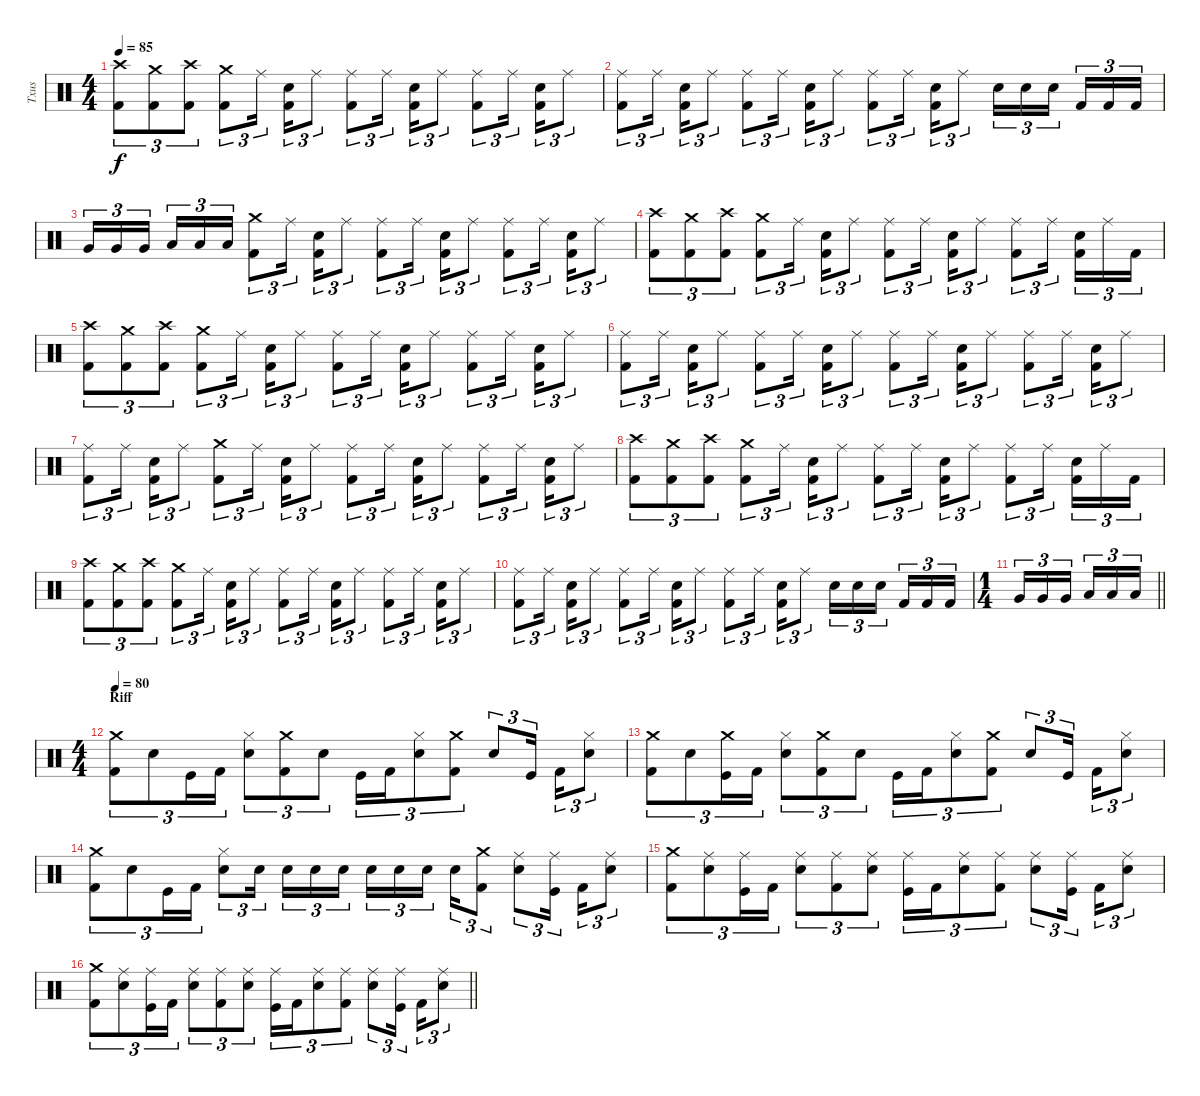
\track ("Txus" "Txus") {instrument percussion}
\staff {score}
\articulation defaults
\ts (4 4)
\tempo 85
\clef neutral
\ks c
("Crash high (hit)" "Kick (hit) 2").8{tu (3 2) dy f} ("Crash medium (hit)" "Kick (hit) 2").8{tu (3 2)} ("Crash high (hit)" "Kick (hit) 2").8{tu (3 2)} ("Crash medium (hit)" "Kick (hit) 2").8{tu (3 2)} "Ride (middle)".16{tu (3 2) beam splitsecondary} ("Electric Snare (hit)" "Kick (hit) 2").16{tu (3 2)} "Ride (middle)".8{tu (3 2)} ("Ride (middle)" "Kick (hit) 2").8{tu (3 2)} "Ride (middle)".16{tu (3 2) beam splitsecondary} ("Electric Snare (hit)" "Kick (hit) 2").16{tu (3 2)} "Ride (middle)".8{tu (3 2)} ("Ride (middle)" "Kick (hit) 2").8{tu (3 2)} "Ride (middle)".16{tu (3 2) beam splitsecondary} ("Electric Snare (hit)" "Kick (hit) 2").16{tu (3 2)} "Ride (middle)".8{tu (3 2)} |
("Ride (middle)" "Kick (hit) 2").8{tu (3 2)} "Ride (middle)".16{tu (3 2) beam splitsecondary} ("Electric Snare (hit)" "Kick (hit) 2").16{tu (3 2)} "Ride (middle)".8{tu (3 2)} ("Ride (middle)" "Kick (hit) 2").8{tu (3 2)} "Ride (middle)".16{tu (3 2) beam splitsecondary} ("Electric Snare (hit)" "Kick (hit) 2").16{tu (3 2)} "Ride (middle)".8{tu (3 2)} ("Ride (middle)" "Kick (hit) 2").8{tu (3 2)} "Ride (middle)".16{tu (3 2) beam splitsecondary} ("Electric Snare (hit)" "Kick (hit) 2").16{tu (3 2)} "Ride (middle)".8{tu (3 2)} "Electric Snare (hit)".16{tu (3 2)} "Electric Snare (hit)".16{tu (3 2)} "Electric Snare (hit)".16{tu (3 2) beam splitsecondary} "Kick (hit) 2".16{tu (3 2)} "Kick (hit) 2".16{tu (3 2)} "Kick (hit) 2".16{tu (3 2)} |
"Very Low Tom (hit)".16{tu (3 2)} "Very Low Tom (hit)".16{tu (3 2)} "Very Low Tom (hit)".16{tu (3 2) beam splitsecondary} "Low Floor Tom (hit)".16{tu (3 2)} "Low Floor Tom (hit)".16{tu (3 2)} "Low Floor Tom (hit)".16{tu (3 2)} ("Crash medium (hit)" "Kick (hit) 2").8{tu (3 2)} "Ride (middle)".16{tu (3 2) beam splitsecondary} ("Electric Snare (hit)" "Kick (hit) 2").16{tu (3 2)} "Ride (middle)".8{tu (3 2)} ("Ride (middle)" "Kick (hit) 2").8{tu (3 2)} "Ride (middle)".16{tu (3 2) beam splitsecondary} ("Electric Snare (hit)" "Kick (hit) 2").16{tu (3 2)} "Ride (middle)".8{tu (3 2)} ("Ride (middle)" "Kick (hit) 2").8{tu (3 2)} "Ride (middle)".16{tu (3 2) beam splitsecondary} ("Electric Snare (hit)" "Kick (hit) 2").16{tu (3 2)} "Ride (middle)".8{tu (3 2)} |
("Crash high (hit)" "Kick (hit) 2").8{tu (3 2)} ("Crash medium (hit)" "Kick (hit) 2").8{tu (3 2)} ("Crash high (hit)" "Kick (hit) 2").8{tu (3 2)} ("Crash medium (hit)" "Kick (hit) 2").8{tu (3 2)} "Ride (middle)".16{tu (3 2) beam splitsecondary} ("Electric Snare (hit)" "Kick (hit) 2").16{tu (3 2)} "Ride (middle)".8{tu (3 2)} ("Ride (middle)" "Kick (hit) 2").8{tu (3 2)} "Ride (middle)".16{tu (3 2) beam splitsecondary} ("Electric Snare (hit)" "Kick (hit) 2").16{tu (3 2)} "Ride (middle)".8{tu (3 2)} ("Ride (middle)" "Kick (hit) 2").8{tu (3 2)} "Ride (middle)".16{tu (3 2) beam splitsecondary} ("Electric Snare (hit)" "Kick (hit) 2").16{tu (3 2)} "Ride (middle)".16{tu (3 2)} "Kick (hit) 2".16{tu (3 2)} |
("Crash high (hit)" "Kick (hit) 2").8{tu (3 2)} ("Crash medium (hit)" "Kick (hit) 2").8{tu (3 2)} ("Crash high (hit)" "Kick (hit) 2").8{tu (3 2)} ("Crash medium (hit)" "Kick (hit) 2").8{tu (3 2)} "Ride (middle)".16{tu (3 2) beam splitsecondary} ("Electric Snare (hit)" "Kick (hit) 2").16{tu (3 2)} "Ride (middle)".8{tu (3 2)} ("Ride (middle)" "Kick (hit) 2").8{tu (3 2)} "Ride (middle)".16{tu (3 2) beam splitsecondary} ("Electric Snare (hit)" "Kick (hit) 2").16{tu (3 2)} "Ride (middle)".8{tu (3 2)} ("Ride (middle)" "Kick (hit) 2").8{tu (3 2)} "Ride (middle)".16{tu (3 2) beam splitsecondary} ("Electric Snare (hit)" "Kick (hit) 2").16{tu (3 2)} "Ride (middle)".8{tu (3 2)} |
("Ride (middle)" "Kick (hit) 2").8{tu (3 2)} "Ride (middle)".16{tu (3 2) beam splitsecondary} ("Electric Snare (hit)" "Kick (hit) 2").16{tu (3 2)} "Ride (middle)".8{tu (3 2)} ("Ride (middle)" "Kick (hit) 2").8{tu (3 2)} "Ride (middle)".16{tu (3 2) beam splitsecondary} ("Electric Snare (hit)" "Kick (hit) 2").16{tu (3 2)} "Ride (middle)".8{tu (3 2)} ("Ride (middle)" "Kick (hit) 2").8{tu (3 2)} "Ride (middle)".16{tu (3 2) beam splitsecondary} ("Electric Snare (hit)" "Kick (hit) 2").16{tu (3 2)} "Ride (middle)".8{tu (3 2)} ("Ride (middle)" "Kick (hit) 2").8{tu (3 2)} "Ride (middle)".16{tu (3 2) beam splitsecondary} ("Electric Snare (hit)" "Kick (hit) 2").16{tu (3 2)} "Ride (middle)".8{tu (3 2)} |
("Ride (middle)" "Kick (hit) 2").8{tu (3 2)} "Ride (middle)".16{tu (3 2) beam splitsecondary} ("Electric Snare (hit)" "Kick (hit) 2").16{tu (3 2)} "Ride (middle)".8{tu (3 2)} ("Crash medium (hit)" "Kick (hit) 2").8{tu (3 2)} "Ride (middle)".16{tu (3 2) beam splitsecondary} ("Electric Snare (hit)" "Kick (hit) 2").16{tu (3 2)} "Ride (middle)".8{tu (3 2)} ("Ride (middle)" "Kick (hit) 2").8{tu (3 2)} "Ride (middle)".16{tu (3 2) beam splitsecondary} ("Electric Snare (hit)" "Kick (hit) 2").16{tu (3 2)} "Ride (middle)".8{tu (3 2)} ("Ride (middle)" "Kick (hit) 2").8{tu (3 2)} "Ride (middle)".16{tu (3 2) beam splitsecondary} ("Electric Snare (hit)" "Kick (hit) 2").16{tu (3 2)} "Ride (middle)".8{tu (3 2)} |
("Crash high (hit)" "Kick (hit) 2").8{tu (3 2)} ("Crash medium (hit)" "Kick (hit) 2").8{tu (3 2)} ("Crash high (hit)" "Kick (hit) 2").8{tu (3 2)} ("Crash medium (hit)" "Kick (hit) 2").8{tu (3 2)} "Ride (middle)".16{tu (3 2) beam splitsecondary} ("Electric Snare (hit)" "Kick (hit) 2").16{tu (3 2)} "Ride (middle)".8{tu (3 2)} ("Ride (middle)" "Kick (hit) 2").8{tu (3 2)} "Ride (middle)".16{tu (3 2) beam splitsecondary} ("Electric Snare (hit)" "Kick (hit) 2").16{tu (3 2)} "Ride (middle)".8{tu (3 2)} ("Ride (middle)" "Kick (hit) 2").8{tu (3 2)} "Ride (middle)".16{tu (3 2) beam splitsecondary} ("Electric Snare (hit)" "Kick (hit) 2").16{tu (3 2)} "Ride (middle)".16{tu (3 2)} "Kick (hit) 2".16{tu (3 2)} |
("Crash high (hit)" "Kick (hit) 2").8{tu (3 2)} ("Crash medium (hit)" "Kick (hit) 2").8{tu (3 2)} ("Crash high (hit)" "Kick (hit) 2").8{tu (3 2)} ("Crash medium (hit)" "Kick (hit) 2").8{tu (3 2)} "Ride (middle)".16{tu (3 2) beam splitsecondary} ("Electric Snare (hit)" "Kick (hit) 2").16{tu (3 2)} "Ride (middle)".8{tu (3 2)} ("Ride (middle)" "Kick (hit) 2").8{tu (3 2)} "Ride (middle)".16{tu (3 2) beam splitsecondary} ("Electric Snare (hit)" "Kick (hit) 2").16{tu (3 2)} "Ride (middle)".8{tu (3 2)} ("Ride (middle)" "Kick (hit) 2").8{tu (3 2)} "Ride (middle)".16{tu (3 2) beam splitsecondary} ("Electric Snare (hit)" "Kick (hit) 2").16{tu (3 2)} "Ride (middle)".8{tu (3 2)} |
("Ride (middle)" "Kick (hit) 2").8{tu (3 2)} "Ride (middle)".16{tu (3 2) beam splitsecondary} ("Electric Snare (hit)" "Kick (hit) 2").16{tu (3 2)} "Ride (middle)".8{tu (3 2)} ("Ride (middle)" "Kick (hit) 2").8{tu (3 2)} "Ride (middle)".16{tu (3 2) beam splitsecondary} ("Electric Snare (hit)" "Kick (hit) 2").16{tu (3 2)} "Ride (middle)".8{tu (3 2)} ("Ride (middle)" "Kick (hit) 2").8{tu (3 2)} "Ride (middle)".16{tu (3 2) beam splitsecondary} ("Electric Snare (hit)" "Kick (hit) 2").16{tu (3 2)} "Ride (middle)".8{tu (3 2)} "Electric Snare (hit)".16{tu (3 2)} "Electric Snare (hit)".16{tu (3 2)} "Electric Snare (hit)".16{tu (3 2) beam splitsecondary} "Kick (hit) 2".16{tu (3 2)} "Kick (hit) 2".16{tu (3 2)} "Kick (hit) 2".16{tu (3 2)} |
\ts (1 4)
\barLineRight lightlight "Very Low Tom (hit)".16{tu (3 2)} "Very Low Tom (hit)".16{tu (3 2)} "Very Low Tom (hit)".16{tu (3 2) beam splitsecondary} "Low Floor Tom (hit)".16{tu (3 2)} "Low Floor Tom (hit)".16{tu (3 2)} "Low Floor Tom (hit)".16{tu (3 2)}
|
\ts (4 4)
\section ("" "Riff")
\tempo 80
("Crash medium (hit)" "Kick (hit) 2").8{tu (3 2)} "Electric Snare (hit)".8{tu (3 2)} "Kick (hit)".16{tu (3 2)} "Kick (hit) 2".16{tu (3 2)} ("Hi-Hat (closed)" "Electric Snare (hit)").8{tu (3 2)} ("Crash medium (hit)" "Kick (hit) 2").8{tu (3 2)} "Electric Snare (hit)".8{tu (3 2)} "Kick (hit)".16{tu (3 2)} "Kick (hit) 2".16{tu (3 2)} ("Hi-Hat (closed)" "Electric Snare (hit)").8{tu (3 2)} ("Crash medium (hit)" "Kick (hit) 2").8{tu (3 2)} "Electric Snare (hit)".8{tu (3 2)} "Kick (hit)".16{tu (3 2) beam splitsecondary} "Kick (hit) 2".16{tu (3 2)} ("Hi-Hat (closed)" "Electric Snare (hit)").8{tu (3 2)} |
("Crash medium (hit)" "Kick (hit) 2").8{tu (3 2)} "Electric Snare (hit)".8{tu (3 2)} ("Crash medium (hit)" "Kick (hit)").16{tu (3 2)} "Kick (hit) 2".16{tu (3 2)} ("Hi-Hat (closed)" "Electric Snare (hit)").8{tu (3 2)} ("Crash medium (hit)" "Kick (hit) 2").8{tu (3 2)} "Electric Snare (hit)".8{tu (3 2)} "Kick (hit)".16{tu (3 2)} "Kick (hit) 2".16{tu (3 2)} ("Hi-Hat (closed)" "Electric Snare (hit)").8{tu (3 2)} ("Crash medium (hit)" "Kick (hit) 2").8{tu (3 2)} "Electric Snare (hit)".8{tu (3 2)} "Kick (hit)".16{tu (3 2) beam splitsecondary} "Kick (hit) 2".16{tu (3 2)} ("Hi-Hat (closed)" "Electric Snare (hit)").8{tu (3 2)} |
("Crash medium (hit)" "Kick (hit) 2").8{tu (3 2)} "Electric Snare (hit)".8{tu (3 2)} "Kick (hit)".16{tu (3 2)} "Kick (hit) 2".16{tu (3 2)} ("Hi-Hat (closed)" "Electric Snare (hit)").8{tu (3 2)} "Electric Snare (hit)".16{tu (3 2) beam splitsecondary} "Electric Snare (hit)".16{tu (3 2)} "Electric Snare (hit)".16{tu (3 2)} "Electric Snare (hit)".16{tu (3 2)} "Electric Snare (hit)".16{tu (3 2)} "Electric Snare (hit)".16{tu (3 2)} "Electric Snare (hit)".16{tu (3 2) beam splitsecondary} "Electric Snare (hit)".16{tu (3 2)} ("Crash medium (hit)" "Kick (hit) 2").8{tu (3 2)} ("Ride (middle)" "Electric Snare (hit)").8{tu (3 2)} ("Ride (middle)" "Kick (hit)").16{tu (3 2) beam splitsecondary} "Kick (hit) 2".16{tu (3 2)} ("Ride (middle)" "Electric Snare (hit)").8{tu (3 2)} |
("Crash medium (hit)" "Kick (hit) 2").8{tu (3 2)} ("Ride (middle)" "Electric Snare (hit)").8{tu (3 2)} ("Ride (middle)" "Kick (hit)").16{tu (3 2)} "Kick (hit) 2".16{tu (3 2)} ("Ride (middle)" "Electric Snare (hit)").8{tu (3 2)} ("Ride (middle)" "Kick (hit) 2").8{tu (3 2)} ("Ride (middle)" "Electric Snare (hit)").8{tu (3 2)} ("Ride (middle)" "Kick (hit)").16{tu (3 2)} "Kick (hit) 2".16{tu (3 2)} ("Ride (middle)" "Electric Snare (hit)").8{tu (3 2)} ("Ride (middle)" "Kick (hit) 2").8{tu (3 2)} ("Ride (middle)" "Electric Snare (hit)").8{tu (3 2)} ("Ride (middle)" "Kick (hit)").16{tu (3 2) beam splitsecondary} "Kick (hit) 2".16{tu (3 2)} ("Ride (middle)" "Electric Snare (hit)").8{tu (3 2)} |
\barLineRight lightlight
("Crash medium (hit)" "Kick (hit) 2").8{tu (3 2)} ("Ride (middle)" "Electric Snare (hit)").8{tu (3 2)} ("Ride (middle)" "Kick (hit)").16{tu (3 2)} "Kick (hit) 2".16{tu (3 2)} ("Ride (middle)" "Electric Snare (hit)").8{tu (3 2)} ("Ride (middle)" "Kick (hit) 2").8{tu (3 2)} ("Ride (middle)" "Electric Snare (hit)").8{tu (3 2)} ("Ride (middle)" "Kick (hit)").16{tu (3 2)} "Kick (hit) 2".16{tu (3 2)} ("Ride (middle)" "Electric Snare (hit)").8{tu (3 2)} ("Ride (middle)" "Kick (hit) 2").8{tu (3 2)} ("Ride (middle)" "Electric Snare (hit)").8{tu (3 2)} ("Ride (middle)" "Kick (hit)").16{tu (3 2) beam splitsecondary} "Kick (hit) 2".16{tu (3 2)} ("Ride (middle)" "Electric Snare (hit)").8{tu (3 2)}
